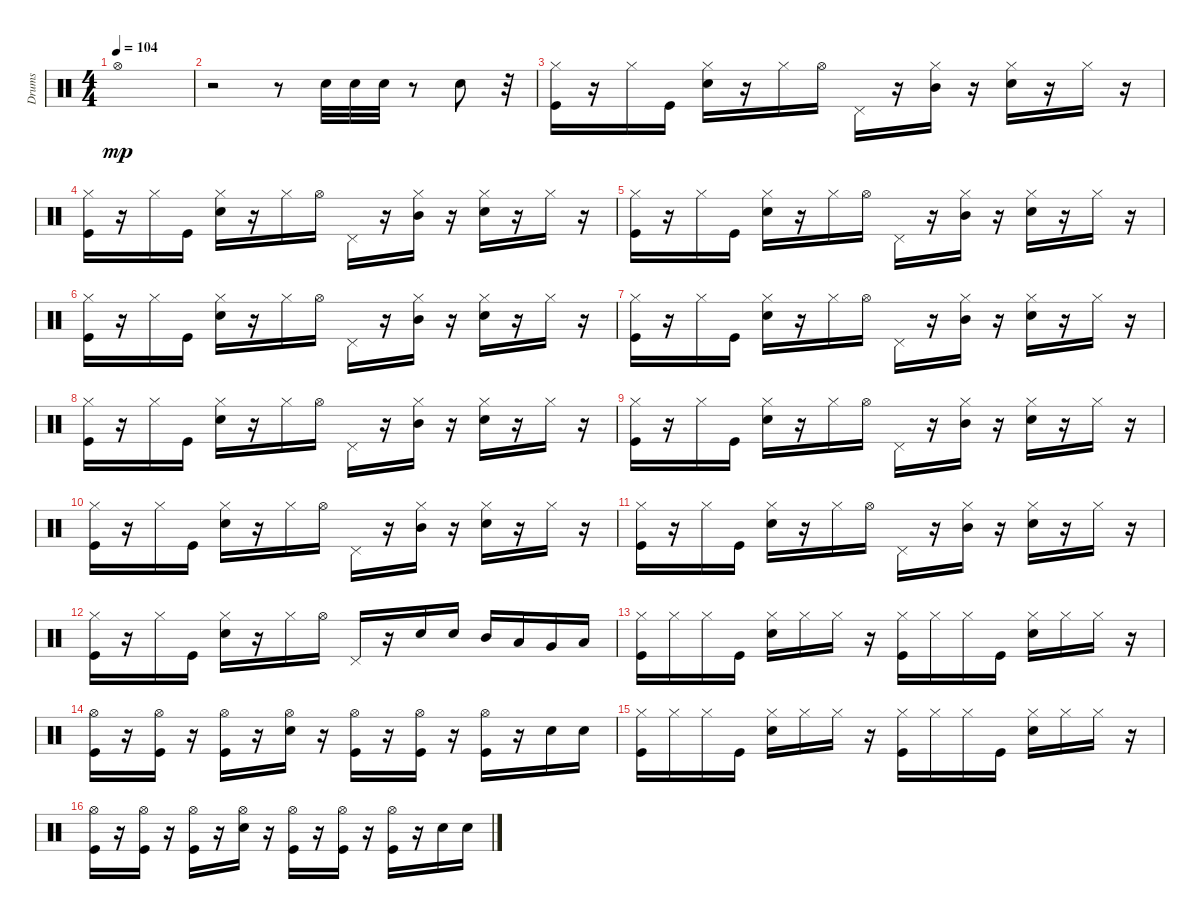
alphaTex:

\track ("Drums" "Drums") {instrument percussion}
\staff {score}
\articulation defaults
\ts (4 4)
\tempo 104
\clef neutral
\ks c "Hi-Hat (open)".1{dy mp}
|
r.2 r.8 "Snare (hit) 2".32 "Snare (hit) 2".32 "Snare (hit) 2".32 r.8 "Snare (hit) 2".8 r.32 |
("Hi-Hat (closed)" "Kick (hit)").16 r.16 "Hi-Hat (closed)".16 "Kick (hit)".16 ("Hi-Hat (closed)" "Snare (hit) 2").16 r.16 "Hi-Hat (closed)".16 "Hi-Hat (open)".16 "Pedal Hi-Hat (hit)".16 r.16 ("Hi-Hat (closed)" "Mid Tom (hit)").16 r.16 ("Hi-Hat (closed)" "Snare (hit) 2").16 r.16 "Hi-Hat (closed)".16 r.16 |
("Hi-Hat (closed)" "Kick (hit)").16 r.16 "Hi-Hat (closed)".16 "Kick (hit)".16 ("Hi-Hat (closed)" "Snare (hit) 2").16 r.16 "Hi-Hat (closed)".16 "Hi-Hat (open)".16 "Pedal Hi-Hat (hit)".16 r.16 ("Hi-Hat (closed)" "Mid Tom (hit)").16 r.16 ("Hi-Hat (closed)" "Snare (hit) 2").16 r.16 "Hi-Hat (closed)".16 r.16 |
("Hi-Hat (closed)" "Kick (hit)").16 r.16 "Hi-Hat (closed)".16 "Kick (hit)".16 ("Hi-Hat (closed)" "Snare (hit) 2").16 r.16 "Hi-Hat (closed)".16 "Hi-Hat (open)".16 "Pedal Hi-Hat (hit)".16 r.16 ("Hi-Hat (closed)" "Mid Tom (hit)").16 r.16 ("Hi-Hat (closed)" "Snare (hit) 2").16 r.16 "Hi-Hat (closed)".16 r.16 |
("Hi-Hat (closed)" "Kick (hit)").16 r.16 "Hi-Hat (closed)".16 "Kick (hit)".16 ("Hi-Hat (closed)" "Snare (hit) 2").16 r.16 "Hi-Hat (closed)".16 "Hi-Hat (open)".16 "Pedal Hi-Hat (hit)".16 r.16 ("Hi-Hat (closed)" "Mid Tom (hit)").16 r.16 ("Hi-Hat (closed)" "Snare (hit) 2").16 r.16 "Hi-Hat (closed)".16 r.16 |
("Hi-Hat (closed)" "Kick (hit)").16 r.16 "Hi-Hat (closed)".16 "Kick (hit)".16 ("Hi-Hat (closed)" "Snare (hit) 2").16 r.16 "Hi-Hat (closed)".16 "Hi-Hat (open)".16 "Pedal Hi-Hat (hit)".16 r.16 ("Hi-Hat (closed)" "Mid Tom (hit)").16 r.16 ("Hi-Hat (closed)" "Snare (hit) 2").16 r.16 "Hi-Hat (closed)".16 r.16 |
("Hi-Hat (closed)" "Kick (hit)").16 r.16 "Hi-Hat (closed)".16 "Kick (hit)".16 ("Hi-Hat (closed)" "Snare (hit) 2").16 r.16 "Hi-Hat (closed)".16 "Hi-Hat (open)".16 "Pedal Hi-Hat (hit)".16 r.16 ("Hi-Hat (closed)" "Mid Tom (hit)").16 r.16 ("Hi-Hat (closed)" "Snare (hit) 2").16 r.16 "Hi-Hat (closed)".16 r.16 |
("Hi-Hat (closed)" "Kick (hit)").16 r.16 "Hi-Hat (closed)".16 "Kick (hit)".16 ("Hi-Hat (closed)" "Snare (hit) 2").16 r.16 "Hi-Hat (closed)".16 "Hi-Hat (open)".16 "Pedal Hi-Hat (hit)".16 r.16 ("Hi-Hat (closed)" "Mid Tom (hit)").16 r.16 ("Hi-Hat (closed)" "Snare (hit) 2").16 r.16 "Hi-Hat (closed)".16 r.16 |
("Hi-Hat (closed)" "Kick (hit)").16 r.16 "Hi-Hat (closed)".16 "Kick (hit)".16 ("Hi-Hat (closed)" "Snare (hit) 2").16 r.16 "Hi-Hat (closed)".16 "Hi-Hat (open)".16 "Pedal Hi-Hat (hit)".16 r.16 ("Hi-Hat (closed)" "Mid Tom (hit)").16 r.16 ("Hi-Hat (closed)" "Snare (hit) 2").16 r.16 "Hi-Hat (closed)".16 r.16 |
("Hi-Hat (closed)" "Kick (hit)").16 r.16 "Hi-Hat (closed)".16 "Kick (hit)".16 ("Hi-Hat (closed)" "Snare (hit) 2").16 r.16 "Hi-Hat (closed)".16 "Hi-Hat (open)".16 "Pedal Hi-Hat (hit)".16 r.16 ("Hi-Hat (closed)" "Mid Tom (hit)").16 r.16 ("Hi-Hat (closed)" "Snare (hit) 2").16 r.16 "Hi-Hat (closed)".16 r.16 |
("Hi-Hat (closed)" "Kick (hit)").16 r.16 "Hi-Hat (closed)".16 "Kick (hit)".16 ("Hi-Hat (closed)" "Snare (hit) 2").16 r.16 "Hi-Hat (closed)".16 "Hi-Hat (open)".16 "Pedal Hi-Hat (hit)".16 r.16 "Snare (hit) 2".16 "Snare (hit) 2".16 "Mid Tom (hit)".16 "Low Tom (hit)".16 "Very Low Tom (hit)".16 "Low Tom (hit)".16 |
("Hi-Hat (closed)" "Kick (hit)").16 "Hi-Hat (closed)".16 "Hi-Hat (closed)".16 "Kick (hit)".16 ("Hi-Hat (closed)" "Snare (hit) 2").16 "Hi-Hat (closed)".16 "Hi-Hat (closed)".16 r.16 ("Hi-Hat (closed)" "Kick (hit)").16 "Hi-Hat (closed)".16 "Hi-Hat (closed)".16 "Kick (hit)".16 ("Hi-Hat (closed)" "Snare (hit) 2").16 "Hi-Hat (closed)".16 "Hi-Hat (closed)".16 r.16 |
("Hi-Hat (open)" "Kick (hit)").16 r.16 ("Hi-Hat (open)" "Kick (hit)").16 r.16 ("Hi-Hat (open)" "Kick (hit)").16 r.16 ("Hi-Hat (open)" "Snare (hit) 2").16 r.16 ("Hi-Hat (open)" "Kick (hit)").16 r.16 ("Hi-Hat (open)" "Kick (hit)").16 r.16 ("Hi-Hat (open)" "Kick (hit)").16 r.16 "Snare (hit) 2".16 "Snare (hit) 2".16 |
("Hi-Hat (closed)" "Kick (hit)").16 "Hi-Hat (closed)".16 "Hi-Hat (closed)".16 "Kick (hit)".16 ("Hi-Hat (closed)" "Snare (hit) 2").16 "Hi-Hat (closed)".16 "Hi-Hat (closed)".16 r.16 ("Hi-Hat (closed)" "Kick (hit)").16 "Hi-Hat (closed)".16 "Hi-Hat (closed)".16 "Kick (hit)".16 ("Hi-Hat (closed)" "Snare (hit) 2").16 "Hi-Hat (closed)".16 "Hi-Hat (closed)".16 r.16 |
("Hi-Hat (open)" "Kick (hit)").16 r.16 ("Hi-Hat (open)" "Kick (hit)").16 r.16 ("Hi-Hat (open)" "Kick (hit)").16 r.16 ("Hi-Hat (open)" "Snare (hit) 2").16 r.16 ("Hi-Hat (open)" "Kick (hit)").16 r.16 ("Hi-Hat (open)" "Kick (hit)").16 r.16 ("Hi-Hat (open)" "Kick (hit)").16 r.16 "Snare (hit) 2".16 "Snare (hit) 2".16
